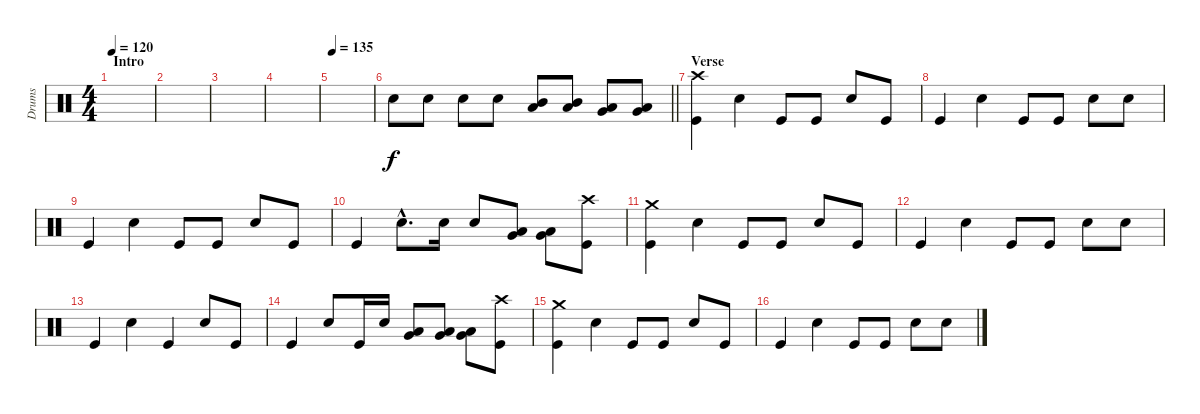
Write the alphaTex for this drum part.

\track ("Drums" "Drums") {instrument percussion}
\staff {score}
\articulation defaults
\ts (4 4)
\section ("" "Intro")
\tempo 120
\clef neutral
\ks c
|
|
|
|
\tempo 135
|
\barLineRight lightlight "Snare (hit) 2".8 "Snare (hit) 2".8 "Snare (hit) 2".8 "Snare (hit) 2".8
("Mid Tom (hit)" "Low Tom (hit)").8 ("Mid Tom (hit)" "Low Tom (hit)").8 ("Low Tom (hit)" "Very Low Tom (hit)").8 ("Low Tom (hit)" "Very Low Tom (hit)").8 |
\section ("" "Verse")
("Crash high (hit)" "Kick (hit)").4 "Snare (hit) 2".4 "Kick (hit)".8 "Kick (hit)".8 "Snare (hit) 2".8 "Kick (hit)".8 |
"Kick (hit)".4 "Snare (hit) 2".4 "Kick (hit)".8 "Kick (hit)".8 "Snare (hit) 2".8 "Snare (hit) 2".8 |
"Kick (hit)".4 "Snare (hit) 2".4 "Kick (hit)".8 "Kick (hit)".8 "Snare (hit) 2".8 "Kick (hit)".8 |
"Kick (hit)".4 "Snare (hit) 2"{hac}.8{d} "Snare (hit) 2".16 "Snare (hit) 2".8 ("Low Tom (hit)" "Very Low Tom (hit)").8 ("Low Tom (hit)" "Very Low Tom (hit)").8 ("Crash high (hit)" "Kick (hit)").8 |
("Crash medium (hit)" "Kick (hit)").4 "Snare (hit) 2".4 "Kick (hit)".8 "Kick (hit)".8 "Snare (hit) 2".8 "Kick (hit)".8 |
"Kick (hit)".4 "Snare (hit) 2".4 "Kick (hit)".8 "Kick (hit)".8 "Snare (hit) 2".8 "Snare (hit) 2".8 |
"Kick (hit)".4 "Snare (hit) 2".4 "Kick (hit)".4 "Snare (hit) 2".8 "Kick (hit)".8 |
"Kick (hit)".4 "Snare (hit) 2".8 "Kick (hit)".16 "Snare (hit) 2".16 ("Low Tom (hit)" "Very Low Tom (hit)").8 ("Low Tom (hit)" "Very Low Tom (hit)").8 ("Low Tom (hit)" "Very Low Tom (hit)").8 ("Crash high (hit)" "Kick (hit)").8 |
("Crash medium (hit)" "Kick (hit)").4 "Snare (hit) 2".4 "Kick (hit)".8 "Kick (hit)".8 "Snare (hit) 2".8 "Kick (hit)".8 |
"Kick (hit)".4 "Snare (hit) 2".4 "Kick (hit)".8 "Kick (hit)".8 "Snare (hit) 2".8 "Snare (hit) 2".8
